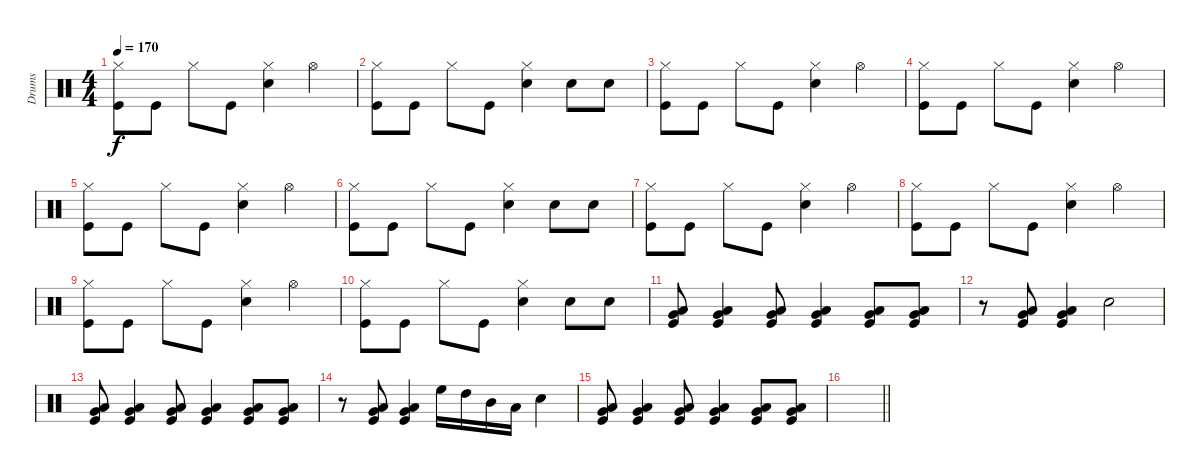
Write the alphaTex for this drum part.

\track ("Drums" "Drums") {instrument percussion}
\staff {score}
\articulation defaults
\ts (4 4)
\tempo 170
\clef neutral
\ks c
("Hi-Hat (closed)" "Kick (hit)").8{dy f} "Kick (hit)".8 "Hi-Hat (closed)".8 "Kick (hit)".8 ("Hi-Hat (closed)" "Snare (hit) 2").4 "Hi-Hat (open)".4 |
("Hi-Hat (closed)" "Kick (hit)").8 "Kick (hit)".8 "Hi-Hat (closed)".8 "Kick (hit)".8 ("Hi-Hat (closed)" "Snare (hit) 2").4 "Snare (hit) 2".8 "Snare (hit) 2".8 |
("Hi-Hat (closed)" "Kick (hit)").8 "Kick (hit)".8 "Hi-Hat (closed)".8 "Kick (hit)".8 ("Hi-Hat (closed)" "Snare (hit) 2").4 "Hi-Hat (open)".4 |
("Hi-Hat (closed)" "Kick (hit)").8 "Kick (hit)".8 "Hi-Hat (closed)".8 "Kick (hit)".8 ("Hi-Hat (closed)" "Snare (hit) 2").4 "Hi-Hat (open)".4 |
("Hi-Hat (closed)" "Kick (hit)").8 "Kick (hit)".8 "Hi-Hat (closed)".8 "Kick (hit)".8 ("Hi-Hat (closed)" "Snare (hit) 2").4 "Hi-Hat (open)".4 |
("Hi-Hat (closed)" "Kick (hit)").8 "Kick (hit)".8 "Hi-Hat (closed)".8 "Kick (hit)".8 ("Hi-Hat (closed)" "Snare (hit) 2").4 "Snare (hit) 2".8 "Snare (hit) 2".8 |
("Hi-Hat (closed)" "Kick (hit)").8 "Kick (hit)".8 "Hi-Hat (closed)".8 "Kick (hit)".8 ("Hi-Hat (closed)" "Snare (hit) 2").4 "Hi-Hat (open)".4 |
("Hi-Hat (closed)" "Kick (hit)").8 "Kick (hit)".8 "Hi-Hat (closed)".8 "Kick (hit)".8 ("Hi-Hat (closed)" "Snare (hit) 2").4 "Hi-Hat (open)".4 |
("Hi-Hat (closed)" "Kick (hit)").8 "Kick (hit)".8 "Hi-Hat (closed)".8 "Kick (hit)".8 ("Hi-Hat (closed)" "Snare (hit) 2").4 "Hi-Hat (open)".4 |
("Hi-Hat (closed)" "Kick (hit)").8 "Kick (hit)".8 "Hi-Hat (closed)".8 "Kick (hit)".8 ("Hi-Hat (closed)" "Snare (hit) 2").4 "Snare (hit) 2".8 "Snare (hit) 2".8 |
("Kick (hit)" "Very Low Tom (hit)" "Low Floor Tom (hit)").8 ("Kick (hit)" "Very Low Tom (hit)" "Low Floor Tom (hit)").4 ("Kick (hit)" "Very Low Tom (hit)" "Low Floor Tom (hit)").8 ("Kick (hit)" "Very Low Tom (hit)" "Low Floor Tom (hit)").4 ("Kick (hit)" "Very Low Tom (hit)" "Low Floor Tom (hit)").8 ("Kick (hit)" "Very Low Tom (hit)" "Low Floor Tom (hit)").8 |
r.8 ("Kick (hit)" "Very Low Tom (hit)" "Low Floor Tom (hit)").8 ("Kick (hit)" "Very Low Tom (hit)" "Low Floor Tom (hit)").4 "Snare (hit) 2".2 |
("Kick (hit)" "Very Low Tom (hit)" "Low Floor Tom (hit)").8 ("Kick (hit)" "Very Low Tom (hit)" "Low Floor Tom (hit)").4 ("Kick (hit)" "Very Low Tom (hit)" "Low Floor Tom (hit)").8 ("Kick (hit)" "Very Low Tom (hit)" "Low Floor Tom (hit)").4 ("Kick (hit)" "Very Low Tom (hit)" "Low Floor Tom (hit)").8 ("Kick (hit)" "Very Low Tom (hit)" "Low Floor Tom (hit)").8 |
r.8 ("Kick (hit)" "Very Low Tom (hit)" "Low Floor Tom (hit)").8 ("Kick (hit)" "Very Low Tom (hit)" "Low Floor Tom (hit)").4 "High Floor Tom (hit)".16 "High Tom (hit)".16 "Mid Tom (hit)".16 "Low Tom (hit)".16 "Snare (hit) 2".4 |
("Kick (hit)" "Very Low Tom (hit)" "Low Floor Tom (hit)").8 ("Kick (hit)" "Very Low Tom (hit)" "Low Floor Tom (hit)").4 ("Kick (hit)" "Very Low Tom (hit)" "Low Floor Tom (hit)").8 ("Kick (hit)" "Very Low Tom (hit)" "Low Floor Tom (hit)").4 ("Kick (hit)" "Very Low Tom (hit)" "Low Floor Tom (hit)").8 ("Kick (hit)" "Very Low Tom (hit)" "Low Floor Tom (hit)").8 |
\barLineRight lightlight
